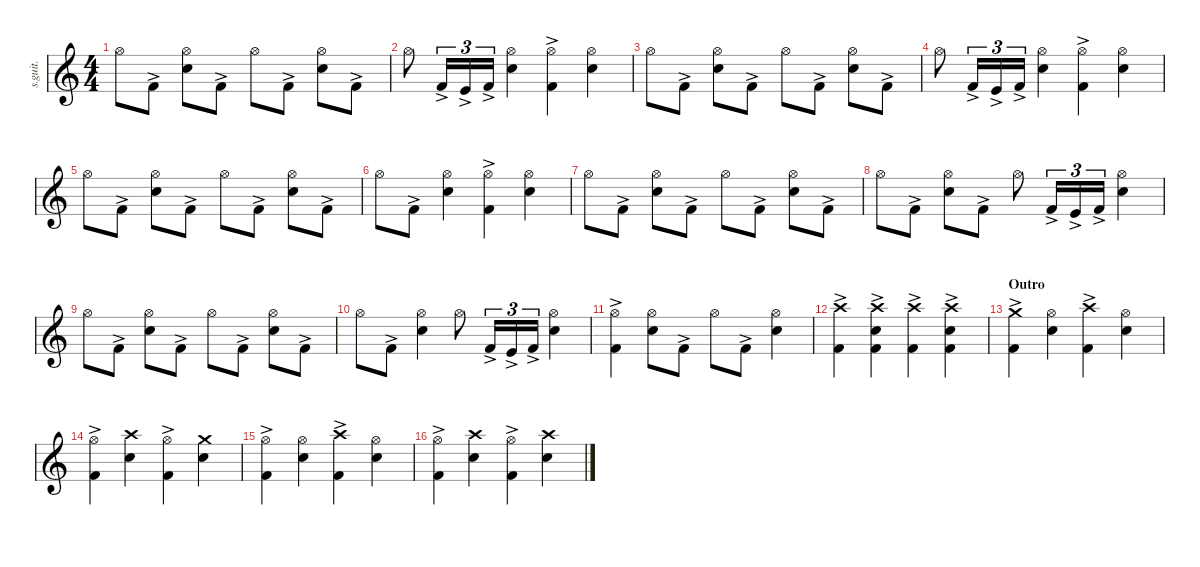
\defaultSystemsLayout 4
\hideDynamics
\bracketExtendMode nobrackets
\track ("Lars Ulrich - Drums" "s.guit.") {instrument percussion}
\staff {score}
\articulation defaults
\ts (4 4)
\tempo (220 hide)
\clef g2
\ks c "Hi-Hat (open)".8{lyrics (0 "") lyrics (1 "") lyrics (2 "") lyrics (3 "") lyrics (4 "") dy f} "Kick (hit) 2"{ac}.8{lyrics (0 "") lyrics (1 "") lyrics (2 "") lyrics (3 "") lyrics (4 "") dy mp}
("Hi-Hat (open)" "Snare (hit) 2").8{lyrics (0 "") lyrics (1 "") lyrics (2 "") lyrics (3 "") lyrics (4 "") dy f} "Kick (hit) 2"{ac}.8{lyrics (0 "") lyrics (1 "") lyrics (2 "") lyrics (3 "") lyrics (4 "") dy mp} "Hi-Hat (open)".8{lyrics (0 "") lyrics (1 "") lyrics (2 "") lyrics (3 "") lyrics (4 "") dy f} "Kick (hit) 2"{ac}.8{lyrics (0 "") lyrics (1 "") lyrics (2 "") lyrics (3 "") lyrics (4 "") dy mp} ("Hi-Hat (open)" "Snare (hit) 2").8{lyrics (0 "") lyrics (1 "") lyrics (2 "") lyrics (3 "") lyrics (4 "") dy f} "Kick (hit) 2"{ac}.8{lyrics (0 "") lyrics (1 "") lyrics (2 "") lyrics (3 "") lyrics (4 "") dy mp} |
"Hi-Hat (open)".8{lyrics (0 "") lyrics (1 "") lyrics (2 "") lyrics (3 "") lyrics (4 "") dy f} "Kick (hit) 2"{ac}.16{tu (3 2) lyrics (0 "") lyrics (1 "") lyrics (2 "") lyrics (3 "") lyrics (4 "") dy mp} "Kick (hit)"{ac}.16{tu (3 2) lyrics (0 "") lyrics (1 "") lyrics (2 "") lyrics (3 "") lyrics (4 "") dy mf} "Kick (hit) 2"{ac}.16{tu (3 2) lyrics (0 "") lyrics (1 "") lyrics (2 "") lyrics (3 "") lyrics (4 "") dy mp} ("Hi-Hat (open)" "Snare (hit) 2").4{lyrics (0 "") lyrics (1 "") lyrics (2 "") lyrics (3 "") lyrics (4 "") dy f} ("Hi-Hat (open)" "Kick (hit) 2"{ac}).4{lyrics (0 "") lyrics (1 "") lyrics (2 "") lyrics (3 "") lyrics (4 "")} ("Hi-Hat (open)" "Snare (hit) 2").4{lyrics (0 "") lyrics (1 "") lyrics (2 "") lyrics (3 "") lyrics (4 "")} |
"Hi-Hat (open)".8{lyrics (0 "") lyrics (1 "") lyrics (2 "") lyrics (3 "") lyrics (4 "")} "Kick (hit) 2"{ac}.8{lyrics (0 "") lyrics (1 "") lyrics (2 "") lyrics (3 "") lyrics (4 "") dy mp} ("Hi-Hat (open)" "Snare (hit) 2").8{lyrics (0 "") lyrics (1 "") lyrics (2 "") lyrics (3 "") lyrics (4 "") dy f} "Kick (hit) 2"{ac}.8{lyrics (0 "") lyrics (1 "") lyrics (2 "") lyrics (3 "") lyrics (4 "") dy mp} "Hi-Hat (open)".8{lyrics (0 "") lyrics (1 "") lyrics (2 "") lyrics (3 "") lyrics (4 "") dy f} "Kick (hit) 2"{ac}.8{lyrics (0 "") lyrics (1 "") lyrics (2 "") lyrics (3 "") lyrics (4 "") dy mp} ("Hi-Hat (open)" "Snare (hit) 2").8{lyrics (0 "") lyrics (1 "") lyrics (2 "") lyrics (3 "") lyrics (4 "") dy f} "Kick (hit) 2"{ac}.8{lyrics (0 "") lyrics (1 "") lyrics (2 "") lyrics (3 "") lyrics (4 "") dy mp} |
"Hi-Hat (open)".8{lyrics (0 "") lyrics (1 "") lyrics (2 "") lyrics (3 "") lyrics (4 "") dy f} "Kick (hit) 2"{ac}.16{tu (3 2) lyrics (0 "") lyrics (1 "") lyrics (2 "") lyrics (3 "") lyrics (4 "") dy mp} "Kick (hit)"{ac}.16{tu (3 2) lyrics (0 "") lyrics (1 "") lyrics (2 "") lyrics (3 "") lyrics (4 "") dy mf} "Kick (hit) 2"{ac}.16{tu (3 2) lyrics (0 "") lyrics (1 "") lyrics (2 "") lyrics (3 "") lyrics (4 "") dy mp} ("Hi-Hat (open)" "Snare (hit) 2").4{lyrics (0 "") lyrics (1 "") lyrics (2 "") lyrics (3 "") lyrics (4 "") dy f} ("Hi-Hat (open)" "Kick (hit) 2"{ac}).4{lyrics (0 "") lyrics (1 "") lyrics (2 "") lyrics (3 "") lyrics (4 "")} ("Hi-Hat (open)" "Snare (hit) 2").4{lyrics (0 "") lyrics (1 "") lyrics (2 "") lyrics (3 "") lyrics (4 "")} |
"Hi-Hat (open)".8{lyrics (0 "") lyrics (1 "") lyrics (2 "") lyrics (3 "") lyrics (4 "")} "Kick (hit) 2"{ac}.8{lyrics (0 "") lyrics (1 "") lyrics (2 "") lyrics (3 "") lyrics (4 "") dy mp} ("Hi-Hat (open)" "Snare (hit) 2").8{lyrics (0 "") lyrics (1 "") lyrics (2 "") lyrics (3 "") lyrics (4 "") dy f} "Kick (hit) 2"{ac}.8{lyrics (0 "") lyrics (1 "") lyrics (2 "") lyrics (3 "") lyrics (4 "") dy mp} "Hi-Hat (open)".8{lyrics (0 "") lyrics (1 "") lyrics (2 "") lyrics (3 "") lyrics (4 "") dy f} "Kick (hit) 2"{ac}.8{lyrics (0 "") lyrics (1 "") lyrics (2 "") lyrics (3 "") lyrics (4 "") dy mp} ("Hi-Hat (open)" "Snare (hit) 2").8{lyrics (0 "") lyrics (1 "") lyrics (2 "") lyrics (3 "") lyrics (4 "") dy f} "Kick (hit) 2"{ac}.8{lyrics (0 "") lyrics (1 "") lyrics (2 "") lyrics (3 "") lyrics (4 "") dy mp} |
"Hi-Hat (open)".8{lyrics (0 "") lyrics (1 "") lyrics (2 "") lyrics (3 "") lyrics (4 "") dy f} "Kick (hit) 2"{ac}.8{lyrics (0 "") lyrics (1 "") lyrics (2 "") lyrics (3 "") lyrics (4 "") dy mp} ("Hi-Hat (open)" "Snare (hit) 2").4{lyrics (0 "") lyrics (1 "") lyrics (2 "") lyrics (3 "") lyrics (4 "") dy f} ("Hi-Hat (open)" "Kick (hit) 2"{ac}).4{lyrics (0 "") lyrics (1 "") lyrics (2 "") lyrics (3 "") lyrics (4 "")} ("Hi-Hat (open)" "Snare (hit) 2").4{lyrics (0 "") lyrics (1 "") lyrics (2 "") lyrics (3 "") lyrics (4 "")} |
"Hi-Hat (open)".8{lyrics (0 "") lyrics (1 "") lyrics (2 "") lyrics (3 "") lyrics (4 "")} "Kick (hit) 2"{ac}.8{lyrics (0 "") lyrics (1 "") lyrics (2 "") lyrics (3 "") lyrics (4 "") dy mp} ("Hi-Hat (open)" "Snare (hit) 2").8{lyrics (0 "") lyrics (1 "") lyrics (2 "") lyrics (3 "") lyrics (4 "") dy f} "Kick (hit) 2"{ac}.8{lyrics (0 "") lyrics (1 "") lyrics (2 "") lyrics (3 "") lyrics (4 "") dy mp} "Hi-Hat (open)".8{lyrics (0 "") lyrics (1 "") lyrics (2 "") lyrics (3 "") lyrics (4 "") dy f} "Kick (hit) 2"{ac}.8{lyrics (0 "") lyrics (1 "") lyrics (2 "") lyrics (3 "") lyrics (4 "") dy mp} ("Hi-Hat (open)" "Snare (hit) 2").8{lyrics (0 "") lyrics (1 "") lyrics (2 "") lyrics (3 "") lyrics (4 "") dy f} "Kick (hit) 2"{ac}.8{lyrics (0 "") lyrics (1 "") lyrics (2 "") lyrics (3 "") lyrics (4 "") dy mp} |
"Hi-Hat (open)".8{lyrics (0 "") lyrics (1 "") lyrics (2 "") lyrics (3 "") lyrics (4 "") dy f} "Kick (hit) 2"{ac}.8{lyrics (0 "") lyrics (1 "") lyrics (2 "") lyrics (3 "") lyrics (4 "") dy mp} ("Hi-Hat (open)" "Snare (hit) 2").8{lyrics (0 "") lyrics (1 "") lyrics (2 "") lyrics (3 "") lyrics (4 "") dy f} "Kick (hit) 2"{ac}.8{lyrics (0 "") lyrics (1 "") lyrics (2 "") lyrics (3 "") lyrics (4 "") dy mp} "Hi-Hat (open)".8{lyrics (0 "") lyrics (1 "") lyrics (2 "") lyrics (3 "") lyrics (4 "") dy f} "Kick (hit) 2"{ac}.16{tu (3 2) lyrics (0 "") lyrics (1 "") lyrics (2 "") lyrics (3 "") lyrics (4 "") dy mf} "Kick (hit)"{ac}.16{tu (3 2) lyrics (0 "") lyrics (1 "") lyrics (2 "") lyrics (3 "") lyrics (4 "")} "Kick (hit) 2"{ac}.16{tu (3 2) lyrics (0 "") lyrics (1 "") lyrics (2 "") lyrics (3 "") lyrics (4 "") dy mp} ("Hi-Hat (open)" "Snare (hit) 2").4{lyrics (0 "") lyrics (1 "") lyrics (2 "") lyrics (3 "") lyrics (4 "") dy f} |
"Hi-Hat (open)".8{lyrics (0 "") lyrics (1 "") lyrics (2 "") lyrics (3 "") lyrics (4 "")} "Kick (hit) 2"{ac}.8{lyrics (0 "") lyrics (1 "") lyrics (2 "") lyrics (3 "") lyrics (4 "") dy mp} ("Hi-Hat (open)" "Snare (hit) 2").8{lyrics (0 "") lyrics (1 "") lyrics (2 "") lyrics (3 "") lyrics (4 "") dy f} "Kick (hit) 2"{ac}.8{lyrics (0 "") lyrics (1 "") lyrics (2 "") lyrics (3 "") lyrics (4 "") dy mp} "Hi-Hat (open)".8{lyrics (0 "") lyrics (1 "") lyrics (2 "") lyrics (3 "") lyrics (4 "") dy f} "Kick (hit) 2"{ac}.8{lyrics (0 "") lyrics (1 "") lyrics (2 "") lyrics (3 "") lyrics (4 "") dy mp} ("Hi-Hat (open)" "Snare (hit) 2").8{lyrics (0 "") lyrics (1 "") lyrics (2 "") lyrics (3 "") lyrics (4 "") dy f} "Kick (hit) 2"{ac}.8{lyrics (0 "") lyrics (1 "") lyrics (2 "") lyrics (3 "") lyrics (4 "") dy mp} |
"Hi-Hat (open)".8{lyrics (0 "") lyrics (1 "") lyrics (2 "") lyrics (3 "") lyrics (4 "") dy f} "Kick (hit) 2"{ac}.8{lyrics (0 "") lyrics (1 "") lyrics (2 "") lyrics (3 "") lyrics (4 "") dy mp} ("Hi-Hat (open)" "Snare (hit) 2").4{lyrics (0 "") lyrics (1 "") lyrics (2 "") lyrics (3 "") lyrics (4 "") dy f} "Hi-Hat (open)".8{lyrics (0 "") lyrics (1 "") lyrics (2 "") lyrics (3 "") lyrics (4 "")} "Kick (hit) 2"{ac}.16{tu (3 2) lyrics (0 "") lyrics (1 "") lyrics (2 "") lyrics (3 "") lyrics (4 "") dy mp} "Kick (hit)"{ac}.16{tu (3 2) lyrics (0 "") lyrics (1 "") lyrics (2 "") lyrics (3 "") lyrics (4 "") dy mf} "Kick (hit) 2"{ac}.16{tu (3 2) lyrics (0 "") lyrics (1 "") lyrics (2 "") lyrics (3 "") lyrics (4 "") dy mp} ("Hi-Hat (open)" "Snare (hit) 2").4{lyrics (0 "") lyrics (1 "") lyrics (2 "") lyrics (3 "") lyrics (4 "") dy f} |
("Hi-Hat (open)" "Kick (hit) 2"{ac}).4{lyrics (0 "") lyrics (1 "") lyrics (2 "") lyrics (3 "") lyrics (4 "")} ("Hi-Hat (open)" "Snare (hit) 2").8{lyrics (0 "") lyrics (1 "") lyrics (2 "") lyrics (3 "") lyrics (4 "")} "Kick (hit) 2"{ac}.8{lyrics (0 "") lyrics (1 "") lyrics (2 "") lyrics (3 "") lyrics (4 "") dy mp} "Hi-Hat (open)".8{lyrics (0 "") lyrics (1 "") lyrics (2 "") lyrics (3 "") lyrics (4 "") dy f} "Kick (hit) 2"{ac}.8{lyrics (0 "") lyrics (1 "") lyrics (2 "") lyrics (3 "") lyrics (4 "") dy mp} ("Hi-Hat (open)" "Snare (hit) 2").4{lyrics (0 "") lyrics (1 "") lyrics (2 "") lyrics (3 "") lyrics (4 "") dy f} |
("Crash high (hit)" "Kick (hit) 2"{ac}).4{lyrics (0 "") lyrics (1 "") lyrics (2 "") lyrics (3 "") lyrics (4 "")} ("Crash high (hit)" "Snare (hit) 2" "Kick (hit) 2"{ac}).4{lyrics (0 "") lyrics (1 "") lyrics (2 "") lyrics (3 "") lyrics (4 "")} ("Kick (hit) 2"{ac} "Crash high (hit)").4{lyrics (0 "") lyrics (1 "") lyrics (2 "") lyrics (3 "") lyrics (4 "")} ("Crash high (hit)" "Snare (hit) 2" "Kick (hit) 2"{ac}).4{lyrics (0 "") lyrics (1 "") lyrics (2 "") lyrics (3 "") lyrics (4 "")} |
\section ("" "Outro")
("Crash medium (hit)" "Kick (hit) 2"{ac}).4{lyrics (0 "") lyrics (1 "") lyrics (2 "") lyrics (3 "") lyrics (4 "")} ("Hi-Hat (open)" "Snare (hit) 2").4{lyrics (0 "") lyrics (1 "") lyrics (2 "") lyrics (3 "") lyrics (4 "")} ("Crash high (hit)" "Kick (hit) 2"{ac}).4{lyrics (0 "") lyrics (1 "") lyrics (2 "") lyrics (3 "") lyrics (4 "")} ("Hi-Hat (open)" "Snare (hit) 2").4{lyrics (0 "") lyrics (1 "") lyrics (2 "") lyrics (3 "") lyrics (4 "")} |
("Hi-Hat (open)" "Kick (hit) 2"{ac}).4{lyrics (0 "") lyrics (1 "") lyrics (2 "") lyrics (3 "") lyrics (4 "")} ("Crash high (hit)" "Snare (hit) 2").4{lyrics (0 "") lyrics (1 "") lyrics (2 "") lyrics (3 "") lyrics (4 "")} ("Hi-Hat (open)" "Kick (hit) 2"{ac}).4{lyrics (0 "") lyrics (1 "") lyrics (2 "") lyrics (3 "") lyrics (4 "")} ("Crash medium (hit)" "Snare (hit) 2").4{lyrics (0 "") lyrics (1 "") lyrics (2 "") lyrics (3 "") lyrics (4 "")} |
("Hi-Hat (open)" "Kick (hit) 2"{ac}).4{lyrics (0 "") lyrics (1 "") lyrics (2 "") lyrics (3 "") lyrics (4 "")} ("Hi-Hat (open)" "Snare (hit) 2").4{lyrics (0 "") lyrics (1 "") lyrics (2 "") lyrics (3 "") lyrics (4 "")} ("Crash high (hit)" "Kick (hit) 2"{ac}).4{lyrics (0 "") lyrics (1 "") lyrics (2 "") lyrics (3 "") lyrics (4 "")} ("Hi-Hat (open)" "Snare (hit) 2").4{lyrics (0 "") lyrics (1 "") lyrics (2 "") lyrics (3 "") lyrics (4 "")} |
("Hi-Hat (open)" "Kick (hit) 2"{ac}).4{lyrics (0 "") lyrics (1 "") lyrics (2 "") lyrics (3 "") lyrics (4 "")} ("Crash high (hit)" "Snare (hit) 2").4{lyrics (0 "") lyrics (1 "") lyrics (2 "") lyrics (3 "") lyrics (4 "")} ("Hi-Hat (open)" "Kick (hit) 2"{ac}).4{lyrics (0 "") lyrics (1 "") lyrics (2 "") lyrics (3 "") lyrics (4 "")} ("Crash high (hit)" "Snare (hit) 2").4{lyrics (0 "") lyrics (1 "") lyrics (2 "") lyrics (3 "") lyrics (4 "")}
